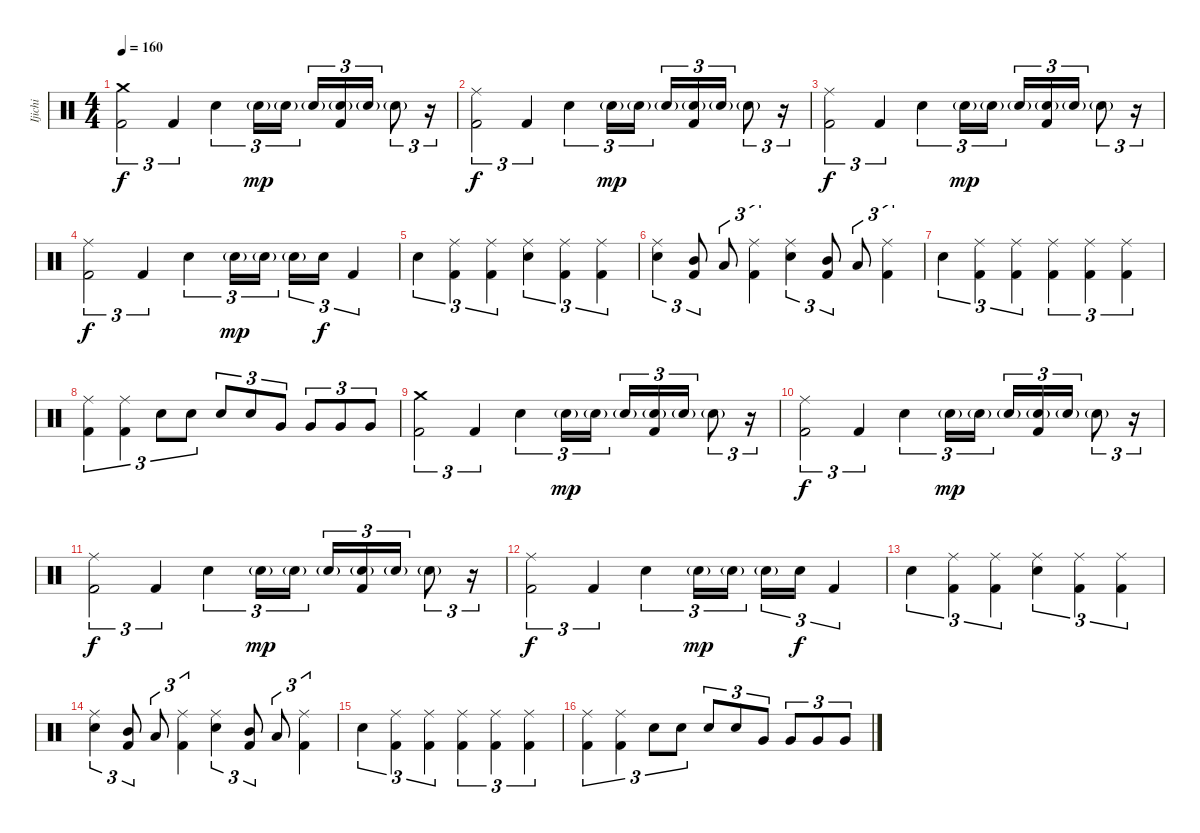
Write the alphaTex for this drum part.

\track ("Ijichi" "Ijichi") {instrument percussion}
\staff {score}
\articulation defaults
\ts (4 4)
\tempo 160
\clef neutral
\ks c
("Crash medium (hit)" "Kick (hit) 2").2{tu (3 2) dy f} "Kick (hit) 2".4{tu (3 2)} "Electric Snare (hit)".4{tu (3 2)} "Electric Snare (hit)"{g}.16{tu (3 2) dy mp} "Electric Snare (hit)"{g}.16{tu (3 2)} "Electric Snare (hit)"{g}.16{tu (3 2)} ("Electric Snare (hit)"{g} "Kick (hit) 2").16{tu (3 2)} "Electric Snare (hit)"{g}.16{tu (3 2)} "Electric Snare (hit)"{g}.8{tu (3 2)} r.16{tu (3 2)} |
("Ride (middle)" "Kick (hit) 2").2{tu (3 2) dy f} "Kick (hit) 2".4{tu (3 2)} "Electric Snare (hit)".4{tu (3 2)} "Electric Snare (hit)"{g}.16{tu (3 2) dy mp} "Electric Snare (hit)"{g}.16{tu (3 2)} "Electric Snare (hit)"{g}.16{tu (3 2)} ("Electric Snare (hit)"{g} "Kick (hit) 2").16{tu (3 2)} "Electric Snare (hit)"{g}.16{tu (3 2)} "Electric Snare (hit)"{g}.8{tu (3 2)} r.16{tu (3 2)} |
("Ride (middle)" "Kick (hit) 2").2{tu (3 2) dy f} "Kick (hit) 2".4{tu (3 2)} "Electric Snare (hit)".4{tu (3 2)} "Electric Snare (hit)"{g}.16{tu (3 2) dy mp} "Electric Snare (hit)"{g}.16{tu (3 2)} "Electric Snare (hit)"{g}.16{tu (3 2)} ("Electric Snare (hit)"{g} "Kick (hit) 2").16{tu (3 2)} "Electric Snare (hit)"{g}.16{tu (3 2)} "Electric Snare (hit)"{g}.8{tu (3 2)} r.16{tu (3 2)} |
("Ride (middle)" "Kick (hit) 2").2{tu (3 2) dy f} "Kick (hit) 2".4{tu (3 2)} "Electric Snare (hit)".4{tu (3 2)} "Electric Snare (hit)"{g}.16{tu (3 2) dy mp} "Electric Snare (hit)"{g}.16{tu (3 2)} "Electric Snare (hit)"{g}.16{tu (3 2)} "Electric Snare (hit)".16{tu (3 2) dy f} "Kick (hit) 2".4{tu (3 2)} |
"Electric Snare (hit)".4{tu (3 2)} ("Ride (middle)" "Kick (hit) 2").4{tu (3 2)} ("Ride (middle)" "Kick (hit) 2").4{tu (3 2)} ("Ride (middle)" "Electric Snare (hit)").4{tu (3 2)} ("Ride (middle)" "Kick (hit) 2").4{tu (3 2)} ("Ride (middle)" "Kick (hit) 2").4{tu (3 2)} |
("Ride (middle)" "Electric Snare (hit)").4{tu (3 2)} ("Mid Tom (hit)" "Kick (hit) 2").8{tu (3 2)} "Low Tom (hit)".8{tu (3 2)} ("Ride (middle)" "Kick (hit) 2").4{tu (3 2)} ("Ride (middle)" "Electric Snare (hit)").4{tu (3 2)} ("Mid Tom (hit)" "Kick (hit) 2").8{tu (3 2)} "Low Tom (hit)".8{tu (3 2)} ("Ride (middle)" "Kick (hit) 2").4{tu (3 2)} |
"Electric Snare (hit)".4{tu (3 2)} ("Ride (middle)" "Kick (hit) 2").4{tu (3 2)} ("Ride (middle)" "Kick (hit) 2").4{tu (3 2)} ("Ride (middle)" "Kick (hit) 2").4{tu (3 2)} ("Ride (middle)" "Kick (hit) 2").4{tu (3 2)} ("Ride (middle)" "Kick (hit) 2").4{tu (3 2)} |
("Ride (middle)" "Kick (hit) 2").4{tu (3 2)} ("Ride (middle)" "Kick (hit) 2").4{tu (3 2)} "Electric Snare (hit)".8{tu (3 2)} "Electric Snare (hit)".8{tu (3 2)} "Electric Snare (hit)".8{tu (3 2)} "Electric Snare (hit)".8{tu (3 2)} "Very Low Tom (hit)".8{tu (3 2)} "Very Low Tom (hit)".8{tu (3 2)} "Very Low Tom (hit)".8{tu (3 2)} "Very Low Tom (hit)".8{tu (3 2)} |
("Crash medium (hit)" "Kick (hit) 2").2{tu (3 2)} "Kick (hit) 2".4{tu (3 2)} "Electric Snare (hit)".4{tu (3 2)} "Electric Snare (hit)"{g}.16{tu (3 2) dy mp} "Electric Snare (hit)"{g}.16{tu (3 2)} "Electric Snare (hit)"{g}.16{tu (3 2)} ("Electric Snare (hit)"{g} "Kick (hit) 2").16{tu (3 2)} "Electric Snare (hit)"{g}.16{tu (3 2)} "Electric Snare (hit)"{g}.8{tu (3 2)} r.16{tu (3 2)} |
("Ride (middle)" "Kick (hit) 2").2{tu (3 2) dy f} "Kick (hit) 2".4{tu (3 2)} "Electric Snare (hit)".4{tu (3 2)} "Electric Snare (hit)"{g}.16{tu (3 2) dy mp} "Electric Snare (hit)"{g}.16{tu (3 2)} "Electric Snare (hit)"{g}.16{tu (3 2)} ("Electric Snare (hit)"{g} "Kick (hit) 2").16{tu (3 2)} "Electric Snare (hit)"{g}.16{tu (3 2)} "Electric Snare (hit)"{g}.8{tu (3 2)} r.16{tu (3 2)} |
("Ride (middle)" "Kick (hit) 2").2{tu (3 2) dy f} "Kick (hit) 2".4{tu (3 2)} "Electric Snare (hit)".4{tu (3 2)} "Electric Snare (hit)"{g}.16{tu (3 2) dy mp} "Electric Snare (hit)"{g}.16{tu (3 2)} "Electric Snare (hit)"{g}.16{tu (3 2)} ("Electric Snare (hit)"{g} "Kick (hit) 2").16{tu (3 2)} "Electric Snare (hit)"{g}.16{tu (3 2)} "Electric Snare (hit)"{g}.8{tu (3 2)} r.16{tu (3 2)} |
("Ride (middle)" "Kick (hit) 2").2{tu (3 2) dy f} "Kick (hit) 2".4{tu (3 2)} "Electric Snare (hit)".4{tu (3 2)} "Electric Snare (hit)"{g}.16{tu (3 2) dy mp} "Electric Snare (hit)"{g}.16{tu (3 2)} "Electric Snare (hit)"{g}.16{tu (3 2)} "Electric Snare (hit)".16{tu (3 2) dy f} "Kick (hit) 2".4{tu (3 2)} |
"Electric Snare (hit)".4{tu (3 2)} ("Ride (middle)" "Kick (hit) 2").4{tu (3 2)} ("Ride (middle)" "Kick (hit) 2").4{tu (3 2)} ("Ride (middle)" "Electric Snare (hit)").4{tu (3 2)} ("Ride (middle)" "Kick (hit) 2").4{tu (3 2)} ("Ride (middle)" "Kick (hit) 2").4{tu (3 2)} |
("Ride (middle)" "Electric Snare (hit)").4{tu (3 2)} ("Mid Tom (hit)" "Kick (hit) 2").8{tu (3 2)} "Low Tom (hit)".8{tu (3 2)} ("Ride (middle)" "Kick (hit) 2").4{tu (3 2)} ("Ride (middle)" "Electric Snare (hit)").4{tu (3 2)} ("Mid Tom (hit)" "Kick (hit) 2").8{tu (3 2)} "Low Tom (hit)".8{tu (3 2)} ("Ride (middle)" "Kick (hit) 2").4{tu (3 2)} |
"Electric Snare (hit)".4{tu (3 2)} ("Ride (middle)" "Kick (hit) 2").4{tu (3 2)} ("Ride (middle)" "Kick (hit) 2").4{tu (3 2)} ("Ride (middle)" "Kick (hit) 2").4{tu (3 2)} ("Ride (middle)" "Kick (hit) 2").4{tu (3 2)} ("Ride (middle)" "Kick (hit) 2").4{tu (3 2)} |
("Ride (middle)" "Kick (hit) 2").4{tu (3 2)} ("Ride (middle)" "Kick (hit) 2").4{tu (3 2)} "Electric Snare (hit)".8{tu (3 2)} "Electric Snare (hit)".8{tu (3 2)} "Electric Snare (hit)".8{tu (3 2)} "Electric Snare (hit)".8{tu (3 2)} "Very Low Tom (hit)".8{tu (3 2)} "Very Low Tom (hit)".8{tu (3 2)} "Very Low Tom (hit)".8{tu (3 2)} "Very Low Tom (hit)".8{tu (3 2)}
